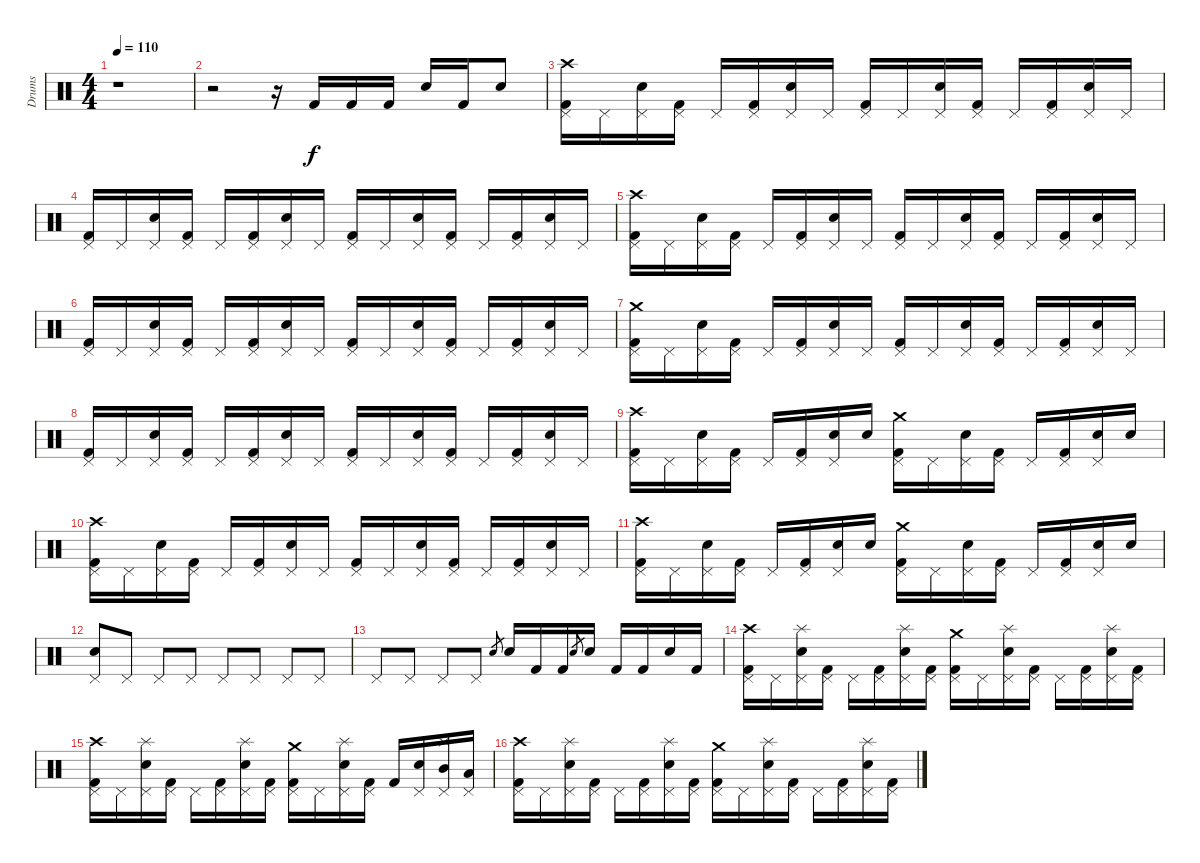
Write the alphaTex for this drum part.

\track ("Drums" "Drums") {instrument percussion}
\staff {score}
\articulation defaults
\ts (4 4)
\tempo 110
\clef neutral
\ks c
r.1{dy f} |
r.2 r.16 "Kick (hit) 2".16 "Kick (hit) 2".16 "Kick (hit) 2".16 "Snare (hit) 2".16 "Kick (hit) 2".16 "Snare (hit) 2".8 |
("Kick (hit) 2" "Pedal Hi-Hat (hit)" "Crash high (hit)").16 "Pedal Hi-Hat (hit)".16 ("Snare (hit) 2" "Pedal Hi-Hat (hit)").16 ("Kick (hit) 2" "Pedal Hi-Hat (hit)").16 "Pedal Hi-Hat (hit)".16 ("Kick (hit) 2" "Pedal Hi-Hat (hit)").16 ("Snare (hit) 2" "Pedal Hi-Hat (hit)").16 "Pedal Hi-Hat (hit)".16 ("Kick (hit) 2" "Pedal Hi-Hat (hit)").16 "Pedal Hi-Hat (hit)".16 ("Snare (hit) 2" "Pedal Hi-Hat (hit)").16 ("Kick (hit) 2" "Pedal Hi-Hat (hit)").16 "Pedal Hi-Hat (hit)".16 ("Kick (hit) 2" "Pedal Hi-Hat (hit)").16 ("Snare (hit) 2" "Pedal Hi-Hat (hit)").16 "Pedal Hi-Hat (hit)".16 |
("Kick (hit) 2" "Pedal Hi-Hat (hit)").16 "Pedal Hi-Hat (hit)".16 ("Snare (hit) 2" "Pedal Hi-Hat (hit)").16 ("Kick (hit) 2" "Pedal Hi-Hat (hit)").16 "Pedal Hi-Hat (hit)".16 ("Kick (hit) 2" "Pedal Hi-Hat (hit)").16 ("Snare (hit) 2" "Pedal Hi-Hat (hit)").16 "Pedal Hi-Hat (hit)".16 ("Kick (hit) 2" "Pedal Hi-Hat (hit)").16 "Pedal Hi-Hat (hit)".16 ("Snare (hit) 2" "Pedal Hi-Hat (hit)").16 ("Kick (hit) 2" "Pedal Hi-Hat (hit)").16 "Pedal Hi-Hat (hit)".16 ("Kick (hit) 2" "Pedal Hi-Hat (hit)").16 ("Snare (hit) 2" "Pedal Hi-Hat (hit)").16 "Pedal Hi-Hat (hit)".16 |
("Kick (hit) 2" "Pedal Hi-Hat (hit)" "Crash high (hit)").16 "Pedal Hi-Hat (hit)".16 ("Snare (hit) 2" "Pedal Hi-Hat (hit)").16 ("Kick (hit) 2" "Pedal Hi-Hat (hit)").16 "Pedal Hi-Hat (hit)".16 ("Kick (hit) 2" "Pedal Hi-Hat (hit)").16 ("Snare (hit) 2" "Pedal Hi-Hat (hit)").16 "Pedal Hi-Hat (hit)".16 ("Kick (hit) 2" "Pedal Hi-Hat (hit)").16 "Pedal Hi-Hat (hit)".16 ("Snare (hit) 2" "Pedal Hi-Hat (hit)").16 ("Kick (hit) 2" "Pedal Hi-Hat (hit)").16 "Pedal Hi-Hat (hit)".16 ("Kick (hit) 2" "Pedal Hi-Hat (hit)").16 ("Snare (hit) 2" "Pedal Hi-Hat (hit)").16 "Pedal Hi-Hat (hit)".16 |
("Kick (hit) 2" "Pedal Hi-Hat (hit)").16 "Pedal Hi-Hat (hit)".16 ("Snare (hit) 2" "Pedal Hi-Hat (hit)").16 ("Kick (hit) 2" "Pedal Hi-Hat (hit)").16 "Pedal Hi-Hat (hit)".16 ("Kick (hit) 2" "Pedal Hi-Hat (hit)").16 ("Snare (hit) 2" "Pedal Hi-Hat (hit)").16 "Pedal Hi-Hat (hit)".16 ("Kick (hit) 2" "Pedal Hi-Hat (hit)").16 "Pedal Hi-Hat (hit)".16 ("Snare (hit) 2" "Pedal Hi-Hat (hit)").16 ("Kick (hit) 2" "Pedal Hi-Hat (hit)").16 "Pedal Hi-Hat (hit)".16 ("Kick (hit) 2" "Pedal Hi-Hat (hit)").16 ("Snare (hit) 2" "Pedal Hi-Hat (hit)").16 "Pedal Hi-Hat (hit)".16 |
("Kick (hit) 2" "Pedal Hi-Hat (hit)" "Crash medium (hit)").16 "Pedal Hi-Hat (hit)".16 ("Snare (hit) 2" "Pedal Hi-Hat (hit)").16 ("Kick (hit) 2" "Pedal Hi-Hat (hit)").16 "Pedal Hi-Hat (hit)".16 ("Kick (hit) 2" "Pedal Hi-Hat (hit)").16 ("Snare (hit) 2" "Pedal Hi-Hat (hit)").16 "Pedal Hi-Hat (hit)".16 ("Kick (hit) 2" "Pedal Hi-Hat (hit)").16 "Pedal Hi-Hat (hit)".16 ("Snare (hit) 2" "Pedal Hi-Hat (hit)").16 ("Kick (hit) 2" "Pedal Hi-Hat (hit)").16 "Pedal Hi-Hat (hit)".16 ("Kick (hit) 2" "Pedal Hi-Hat (hit)").16 ("Snare (hit) 2" "Pedal Hi-Hat (hit)").16 "Pedal Hi-Hat (hit)".16 |
("Kick (hit) 2" "Pedal Hi-Hat (hit)").16 "Pedal Hi-Hat (hit)".16 ("Snare (hit) 2" "Pedal Hi-Hat (hit)").16 ("Kick (hit) 2" "Pedal Hi-Hat (hit)").16 "Pedal Hi-Hat (hit)".16 ("Kick (hit) 2" "Pedal Hi-Hat (hit)").16 ("Snare (hit) 2" "Pedal Hi-Hat (hit)").16 "Pedal Hi-Hat (hit)".16 ("Kick (hit) 2" "Pedal Hi-Hat (hit)").16 "Pedal Hi-Hat (hit)".16 ("Snare (hit) 2" "Pedal Hi-Hat (hit)").16 ("Kick (hit) 2" "Pedal Hi-Hat (hit)").16 "Pedal Hi-Hat (hit)".16 ("Kick (hit) 2" "Pedal Hi-Hat (hit)").16 ("Snare (hit) 2" "Pedal Hi-Hat (hit)").16 "Pedal Hi-Hat (hit)".16 |
("Kick (hit) 2" "Pedal Hi-Hat (hit)" "Crash high (hit)").16 "Pedal Hi-Hat (hit)".16 ("Snare (hit) 2" "Pedal Hi-Hat (hit)").16 ("Kick (hit) 2" "Pedal Hi-Hat (hit)").16 "Pedal Hi-Hat (hit)".16 ("Kick (hit) 2" "Pedal Hi-Hat (hit)").16 ("Snare (hit) 2" "Pedal Hi-Hat (hit)").16 "Snare (hit) 2".16 ("Kick (hit) 2" "Pedal Hi-Hat (hit)" "Crash medium (hit)").16 "Pedal Hi-Hat (hit)".16 ("Snare (hit) 2" "Pedal Hi-Hat (hit)").16 ("Kick (hit) 2" "Pedal Hi-Hat (hit)").16 "Pedal Hi-Hat (hit)".16 ("Kick (hit) 2" "Pedal Hi-Hat (hit)").16 ("Snare (hit) 2" "Pedal Hi-Hat (hit)").16 "Snare (hit) 2".16 |
("Kick (hit) 2" "Pedal Hi-Hat (hit)" "Crash high (hit)").16 "Pedal Hi-Hat (hit)".16 ("Snare (hit) 2" "Pedal Hi-Hat (hit)").16 ("Kick (hit) 2" "Pedal Hi-Hat (hit)").16 "Pedal Hi-Hat (hit)".16 ("Kick (hit) 2" "Pedal Hi-Hat (hit)").16 ("Snare (hit) 2" "Pedal Hi-Hat (hit)").16 "Pedal Hi-Hat (hit)".16 ("Kick (hit) 2" "Pedal Hi-Hat (hit)").16 "Pedal Hi-Hat (hit)".16 ("Snare (hit) 2" "Pedal Hi-Hat (hit)").16 ("Kick (hit) 2" "Pedal Hi-Hat (hit)").16 "Pedal Hi-Hat (hit)".16 ("Kick (hit) 2" "Pedal Hi-Hat (hit)").16 ("Snare (hit) 2" "Pedal Hi-Hat (hit)").16 "Pedal Hi-Hat (hit)".16 |
("Kick (hit) 2" "Pedal Hi-Hat (hit)" "Crash high (hit)").16 "Pedal Hi-Hat (hit)".16 ("Snare (hit) 2" "Pedal Hi-Hat (hit)").16 ("Kick (hit) 2" "Pedal Hi-Hat (hit)").16 "Pedal Hi-Hat (hit)".16 ("Kick (hit) 2" "Pedal Hi-Hat (hit)").16 ("Snare (hit) 2" "Pedal Hi-Hat (hit)").16 "Snare (hit) 2".16 ("Kick (hit) 2" "Pedal Hi-Hat (hit)" "Crash medium (hit)").16 "Pedal Hi-Hat (hit)".16 ("Snare (hit) 2" "Pedal Hi-Hat (hit)").16 ("Kick (hit) 2" "Pedal Hi-Hat (hit)").16 "Pedal Hi-Hat (hit)".16 ("Kick (hit) 2" "Pedal Hi-Hat (hit)").16 ("Snare (hit) 2" "Pedal Hi-Hat (hit)").16 "Snare (hit) 2".16 |
("Snare (hit) 2" "Pedal Hi-Hat (hit)").8 "Pedal Hi-Hat (hit)".8 "Pedal Hi-Hat (hit)".8 "Pedal Hi-Hat (hit)".8 "Pedal Hi-Hat (hit)".8 "Pedal Hi-Hat (hit)".8 "Pedal Hi-Hat (hit)".8 "Pedal Hi-Hat (hit)".8 |
"Pedal Hi-Hat (hit)".8 "Pedal Hi-Hat (hit)".8 "Pedal Hi-Hat (hit)".8 "Pedal Hi-Hat (hit)".8 "Snare (hit) 2".8{gr} "Snare (hit) 2".16 "Kick (hit) 2".16 "Kick (hit) 2".16 "Snare (hit) 2".8{gr} "Snare (hit) 2".16 "Kick (hit) 2".16 "Kick (hit) 2".16 "Snare (hit) 2".16 "Kick (hit) 2".16 |
("Kick (hit) 2" "Pedal Hi-Hat (hit)" "Crash high (hit)").16 "Pedal Hi-Hat (hit)".16 ("Snare (hit) 2" "Pedal Hi-Hat (hit)" "Splash (hit)").16 ("Kick (hit) 2" "Pedal Hi-Hat (hit)").16 "Pedal Hi-Hat (hit)".16 ("Kick (hit) 2" "Pedal Hi-Hat (hit)").16 ("Snare (hit) 2" "Pedal Hi-Hat (hit)" "Splash (hit)").16 ("Kick (hit) 2" "Pedal Hi-Hat (hit)").16 ("Kick (hit) 2" "Pedal Hi-Hat (hit)" "Crash medium (hit)").16 "Pedal Hi-Hat (hit)".16 ("Snare (hit) 2" "Pedal Hi-Hat (hit)" "Splash (hit)").16 ("Kick (hit) 2" "Pedal Hi-Hat (hit)").16 "Pedal Hi-Hat (hit)".16 ("Kick (hit) 2" "Pedal Hi-Hat (hit)").16 ("Snare (hit) 2" "Pedal Hi-Hat (hit)" "Splash (hit)").16 ("Kick (hit) 2" "Pedal Hi-Hat (hit)").16 |
("Kick (hit) 2" "Pedal Hi-Hat (hit)" "Crash high (hit)").16 "Pedal Hi-Hat (hit)".16 ("Snare (hit) 2" "Pedal Hi-Hat (hit)" "Splash (hit)").16 ("Kick (hit) 2" "Pedal Hi-Hat (hit)").16 "Pedal Hi-Hat (hit)".16 ("Kick (hit) 2" "Pedal Hi-Hat (hit)").16 ("Snare (hit) 2" "Pedal Hi-Hat (hit)" "Splash (hit)").16 ("Kick (hit) 2" "Pedal Hi-Hat (hit)").16 ("Kick (hit) 2" "Pedal Hi-Hat (hit)" "Crash medium (hit)").16 "Pedal Hi-Hat (hit)".16 ("Snare (hit) 2" "Pedal Hi-Hat (hit)" "Splash (hit)").16 ("Kick (hit) 2" "Pedal Hi-Hat (hit)").16 "Kick (hit) 2".16 ("Snare (hit) 2" "Pedal Hi-Hat (hit)").16 ("Mid Tom (hit)" "Pedal Hi-Hat (hit)" "Splash (hit)").16 ("Low Tom (hit)" "Pedal Hi-Hat (hit)").16 |
("Kick (hit) 2" "Pedal Hi-Hat (hit)" "Crash high (hit)").16 "Pedal Hi-Hat (hit)".16 ("Snare (hit) 2" "Pedal Hi-Hat (hit)" "Splash (hit)").16 ("Kick (hit) 2" "Pedal Hi-Hat (hit)").16 "Pedal Hi-Hat (hit)".16 ("Kick (hit) 2" "Pedal Hi-Hat (hit)").16 ("Snare (hit) 2" "Pedal Hi-Hat (hit)" "Splash (hit)").16 ("Kick (hit) 2" "Pedal Hi-Hat (hit)").16 ("Kick (hit) 2" "Pedal Hi-Hat (hit)" "Crash medium (hit)").16 "Pedal Hi-Hat (hit)".16 ("Snare (hit) 2" "Pedal Hi-Hat (hit)" "Splash (hit)").16 ("Kick (hit) 2" "Pedal Hi-Hat (hit)").16 "Pedal Hi-Hat (hit)".16 ("Kick (hit) 2" "Pedal Hi-Hat (hit)").16 ("Snare (hit) 2" "Pedal Hi-Hat (hit)" "Splash (hit)").16 ("Kick (hit) 2" "Pedal Hi-Hat (hit)").16
